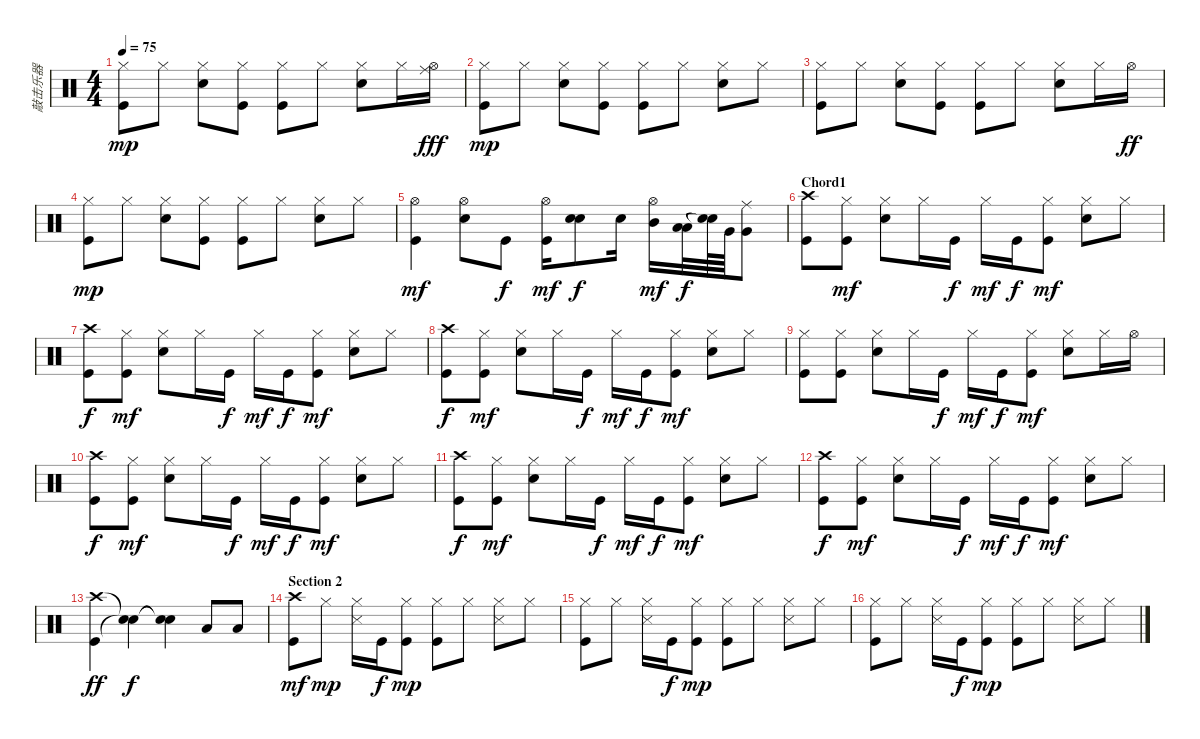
\track ("敲击乐器" "敲击乐器") {instrument percussion}
\staff {score}
\articulation defaults
\ts (4 4)
\tempo 75
\clef neutral
\ks c
("Kick (hit)" "Hi-Hat (closed)").8{dy mp} "Hi-Hat (closed)".8 ("Electric Snare (hit)" "Hi-Hat (closed)").8 ("Kick (hit)" "Hi-Hat (closed)").8 ("Kick (hit)" "Hi-Hat (closed)").8 "Hi-Hat (closed)".8 ("Electric Snare (hit)" "Hi-Hat (closed)").8 "Hi-Hat (closed)".16 ("Ride (middle)" "Hi-Hat (open)").16{dy fff} |
("Kick (hit)" "Hi-Hat (closed)").8{dy mp} "Hi-Hat (closed)".8 ("Electric Snare (hit)" "Hi-Hat (closed)").8 ("Kick (hit)" "Hi-Hat (closed)").8 ("Kick (hit)" "Hi-Hat (closed)").8 "Hi-Hat (closed)".8 ("Electric Snare (hit)" "Hi-Hat (closed)").8 "Hi-Hat (closed)".8 |
("Kick (hit)" "Hi-Hat (closed)").8 "Hi-Hat (closed)".8 ("Electric Snare (hit)" "Hi-Hat (closed)").8 ("Kick (hit)" "Hi-Hat (closed)").8 ("Kick (hit)" "Hi-Hat (closed)").8 "Hi-Hat (closed)".8 ("Electric Snare (hit)" "Hi-Hat (closed)").8 "Hi-Hat (closed)".16 "Hi-Hat (open)".16{dy ff} |
("Kick (hit)" "Hi-Hat (closed)").8{dy mp} "Hi-Hat (closed)".8 ("Electric Snare (hit)" "Hi-Hat (closed)").8 ("Kick (hit)" "Hi-Hat (closed)").8 ("Kick (hit)" "Hi-Hat (closed)").8 "Hi-Hat (closed)".8 ("Electric Snare (hit)" "Hi-Hat (closed)").8 "Hi-Hat (closed)".8 |
("Kick (hit)" "Hi-Hat (open)").4{dy mf} ("Electric Snare (hit)" "Hi-Hat (open)").8 "Kick (hit)".8{dy f} ("Kick (hit)" "Hi-Hat (open)").16{dy mf} ("Electric Snare (hit)" "Electric Snare (hit)").8{dy f} "Electric Snare (hit)".16 ("Mid Tom (hit)" "Hi-Hat (open)").16{dy mf} ("Low Tom (hit)" "Low Tom (hit)").32{dy f} ("Snare (hit)"{t} "Snare (hit)"{t}).64 "Very Low Tom (hit)".64 ("Very Low Tom (hit)" "Ride (middle)").8 |
\section ("" "Chord1")
("Kick (hit)" "Crash high (hit)").8 ("Kick (hit)" "Hi-Hat (closed)").8{dy mf} ("Electric Snare (hit)" "Hi-Hat (closed)").8 "Hi-Hat (closed)".16 "Kick (hit)".16{dy f} "Hi-Hat (closed)".16{dy mf} "Kick (hit)".16{dy f} ("Kick (hit)" "Hi-Hat (closed)").8{dy mf} ("Electric Snare (hit)" "Hi-Hat (closed)").8 "Hi-Hat (closed)".8 |
("Kick (hit)" "Crash high (hit)").8{dy f} ("Kick (hit)" "Hi-Hat (closed)").8{dy mf} ("Electric Snare (hit)" "Hi-Hat (closed)").8 "Hi-Hat (closed)".16 "Kick (hit)".16{dy f} "Hi-Hat (closed)".16{dy mf} "Kick (hit)".16{dy f} ("Kick (hit)" "Hi-Hat (closed)").8{dy mf} ("Electric Snare (hit)" "Hi-Hat (closed)").8 "Hi-Hat (closed)".8 |
("Kick (hit)" "Crash high (hit)").8{dy f} ("Kick (hit)" "Hi-Hat (closed)").8{dy mf} ("Electric Snare (hit)" "Hi-Hat (closed)").8 "Hi-Hat (closed)".16 "Kick (hit)".16{dy f} "Hi-Hat (closed)".16{dy mf} "Kick (hit)".16{dy f} ("Kick (hit)" "Hi-Hat (closed)").8{dy mf} ("Electric Snare (hit)" "Hi-Hat (closed)").8 "Hi-Hat (closed)".8 |
("Kick (hit)" "Hi-Hat (closed)").8 ("Kick (hit)" "Hi-Hat (closed)").8 ("Electric Snare (hit)" "Hi-Hat (closed)").8 "Hi-Hat (closed)".16 "Kick (hit)".16{dy f} "Hi-Hat (closed)".16{dy mf} "Kick (hit)".16{dy f} ("Kick (hit)" "Hi-Hat (closed)").8{dy mf} ("Electric Snare (hit)" "Hi-Hat (closed)").8 "Hi-Hat (closed)".16 "Hi-Hat (open)".16 |
("Kick (hit)" "Crash high (hit)").8{dy f} ("Kick (hit)" "Hi-Hat (closed)").8{dy mf} ("Electric Snare (hit)" "Hi-Hat (closed)").8 "Hi-Hat (closed)".16 "Kick (hit)".16{dy f} "Hi-Hat (closed)".16{dy mf} "Kick (hit)".16{dy f} ("Kick (hit)" "Hi-Hat (closed)").8{dy mf} ("Electric Snare (hit)" "Hi-Hat (closed)").8 "Hi-Hat (closed)".8 |
("Kick (hit)" "Crash high (hit)").8{dy f} ("Kick (hit)" "Hi-Hat (closed)").8{dy mf} ("Electric Snare (hit)" "Hi-Hat (closed)").8 "Hi-Hat (closed)".16 "Kick (hit)".16{dy f} "Hi-Hat (closed)".16{dy mf} "Kick (hit)".16{dy f} ("Kick (hit)" "Hi-Hat (closed)").8{dy mf} ("Electric Snare (hit)" "Hi-Hat (closed)").8 "Hi-Hat (closed)".8 |
("Kick (hit)" "Crash high (hit)").8{dy f} ("Kick (hit)" "Hi-Hat (closed)").8{dy mf} ("Electric Snare (hit)" "Hi-Hat (closed)").8 "Hi-Hat (closed)".16 "Kick (hit)".16{dy f} "Hi-Hat (closed)".16{dy mf} "Kick (hit)".16{dy f} ("Kick (hit)" "Hi-Hat (closed)").8{dy mf} ("Electric Snare (hit)" "Hi-Hat (closed)").8 "Hi-Hat (closed)".8 |
("Kick (hit)" "Crash high (hit)").4{dy ff} ("Snare (hit)"{t} "Snare (hit)"{t}).4{dy f} ("Snare (hit)"{t} "Snare (hit)"{t}).4 "Low Tom (hit)".8 "Low Tom (hit)".8 |
\section ("" "Section 2")
("Kick (hit)" "Crash high (hit)").8{dy mf} "Hi-Hat (closed)".8{dy mp} ("Snare (side stick) 3" "Hi-Hat (closed)").16 "Kick (hit)".16{dy f} ("Kick (hit)" "Hi-Hat (closed)").8{dy mp} ("Kick (hit)" "Hi-Hat (closed)").8 "Hi-Hat (closed)".8 ("Snare (side stick) 3" "Hi-Hat (closed)").8 "Hi-Hat (closed)".8 |
("Kick (hit)" "Hi-Hat (closed)").8 "Hi-Hat (closed)".8 ("Snare (side stick) 3" "Hi-Hat (closed)").16 "Kick (hit)".16{dy f} ("Kick (hit)" "Hi-Hat (closed)").8{dy mp} ("Kick (hit)" "Hi-Hat (closed)").8 "Hi-Hat (closed)".8 ("Snare (side stick) 3" "Hi-Hat (closed)").8 "Hi-Hat (closed)".8 |
("Kick (hit)" "Hi-Hat (closed)").8 "Hi-Hat (closed)".8 ("Snare (side stick) 3" "Hi-Hat (closed)").16 "Kick (hit)".16{dy f} ("Kick (hit)" "Hi-Hat (closed)").8{dy mp} ("Kick (hit)" "Hi-Hat (closed)").8 "Hi-Hat (closed)".8 ("Snare (side stick) 3" "Hi-Hat (closed)").8 "Hi-Hat (closed)".8
